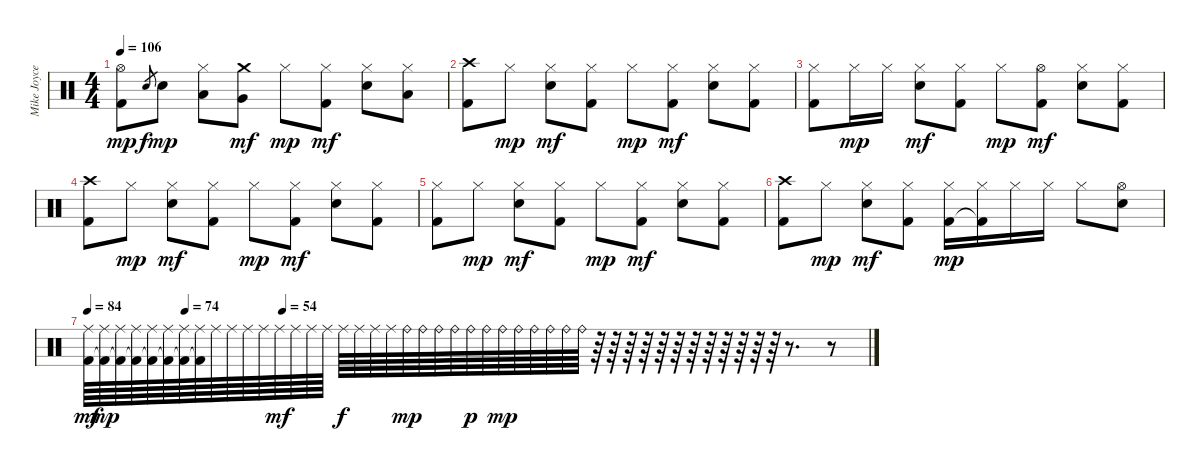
\track ("Mike Joyce" "Mike Joyce") {instrument percussion}
\staff {score}
\articulation defaults
\ts (4 4)
\tempo 106
\clef neutral
\ks c
("Hi-Hat (open)" "Kick (hit) 2").8{dy mp} "Electric Snare (hit)".8{gr dy f} "Electric Snare (hit)".8{dy mp} ("Hi-Hat (closed)" "Low Tom (hit)").8 ("Crash medium (hit)" "Very Low Tom (hit)").8{dy mf} "Hi-Hat (closed)".8{dy mp} ("Hi-Hat (closed)" "Kick (hit) 2").8{dy mf} ("Hi-Hat (closed)" "Electric Snare (hit)").8 ("Hi-Hat (closed)" "Low Floor Tom (hit)").8 |
("Crash high (hit)" "Kick (hit) 2").8 "Hi-Hat (closed)".8{dy mp} ("Hi-Hat (closed)" "Electric Snare (hit)").8{dy mf} ("Hi-Hat (closed)" "Kick (hit) 2").8 "Hi-Hat (closed)".8{dy mp} ("Hi-Hat (closed)" "Kick (hit) 2").8{dy mf} ("Hi-Hat (closed)" "Electric Snare (hit)").8 ("Hi-Hat (closed)" "Kick (hit) 2").8 |
("Hi-Hat (closed)" "Kick (hit) 2").8 "Hi-Hat (closed)".16{dy mp} "Hi-Hat (closed)".16 ("Hi-Hat (closed)" "Electric Snare (hit)").8{dy mf} ("Hi-Hat (closed)" "Kick (hit) 2").8 "Hi-Hat (closed)".8{dy mp} ("Hi-Hat (open)" "Kick (hit) 2").8{dy mf} ("Hi-Hat (closed)" "Electric Snare (hit)").8 ("Hi-Hat (closed)" "Kick (hit) 2").8 |
("Crash high (hit)" "Kick (hit) 2").8 "Hi-Hat (closed)".8{dy mp} ("Hi-Hat (closed)" "Electric Snare (hit)").8{dy mf} ("Hi-Hat (closed)" "Kick (hit) 2").8 "Hi-Hat (closed)".8{dy mp} ("Hi-Hat (closed)" "Kick (hit) 2").8{dy mf} ("Hi-Hat (closed)" "Electric Snare (hit)").8 ("Hi-Hat (closed)" "Kick (hit) 2").8 |
("Hi-Hat (closed)" "Kick (hit) 2").8 "Hi-Hat (closed)".8{dy mp} ("Hi-Hat (closed)" "Electric Snare (hit)").8{dy mf} ("Hi-Hat (closed)" "Kick (hit) 2").8 "Hi-Hat (closed)".8{dy mp} ("Hi-Hat (closed)" "Kick (hit) 2").8{dy mf} ("Hi-Hat (closed)" "Electric Snare (hit)").8 ("Hi-Hat (closed)" "Kick (hit) 2").8 |
("Crash high (hit)" "Kick (hit) 2").8 "Hi-Hat (closed)".8{dy mp} ("Hi-Hat (closed)" "Electric Snare (hit)").8{dy mf} ("Hi-Hat (closed)" "Kick (hit) 2").8 ("Hi-Hat (closed)" "Kick (hit) 2").16{dy mp} ("Hi-Hat (closed)" "Kick (hit) 2"{t}).16 "Hi-Hat (closed)".16 "Hi-Hat (closed)".16 "Hi-Hat (closed)".8 ("Hi-Hat (open)" "Electric Snare (hit)").8 |
\tempo 84
\tempo (74 0.125)
\tempo (54 0.25)
("Ride (middle)" "Kick (hit) 2").64{dy mf} ("Ride (middle)" "Kick (hit) 2"{t}).64{dy mp} ("Ride (middle)" "Kick (hit) 2"{t}).64 ("Ride (middle)" "Kick (hit) 2"{t}).64 ("Ride (middle)" "Kick (hit) 2"{t}).64 ("Ride (middle)" "Kick (hit) 2"{t}).64 ("Ride (middle)" "Kick (hit) 2"{t}).64 ("Ride (middle)" "Kick (hit) 2"{t}).64 "Ride (middle)".64 "Ride (middle)".64 "Ride (middle)".64 "Ride (middle)".64 "Ride (middle)".64{dy mf} "Ride (middle)".64 "Ride (middle)".64 "Ride (middle)".64 "Ride (middle)".64{dy f} "Ride (middle)".64 "Ride (middle)".64 "Ride (middle)".64 "Ride (bell)".64{dy mp} "Ride (bell)".64 "Ride (bell)".64 "Ride (bell)".64 "Ride (bell)".64{dy p} "Ride (bell)".64 "Ride (bell)".64{dy mp} "Ride (bell)".64 "Ride (bell)".64 "Ride (bell)".64 "Ride (bell)".64 "Ride (bell)".64 r.64 r.64 r.64 r.64 r.64 r.64 r.64 r.64 r.64 r.64 r.64 r.64 r.8{d} r.8
